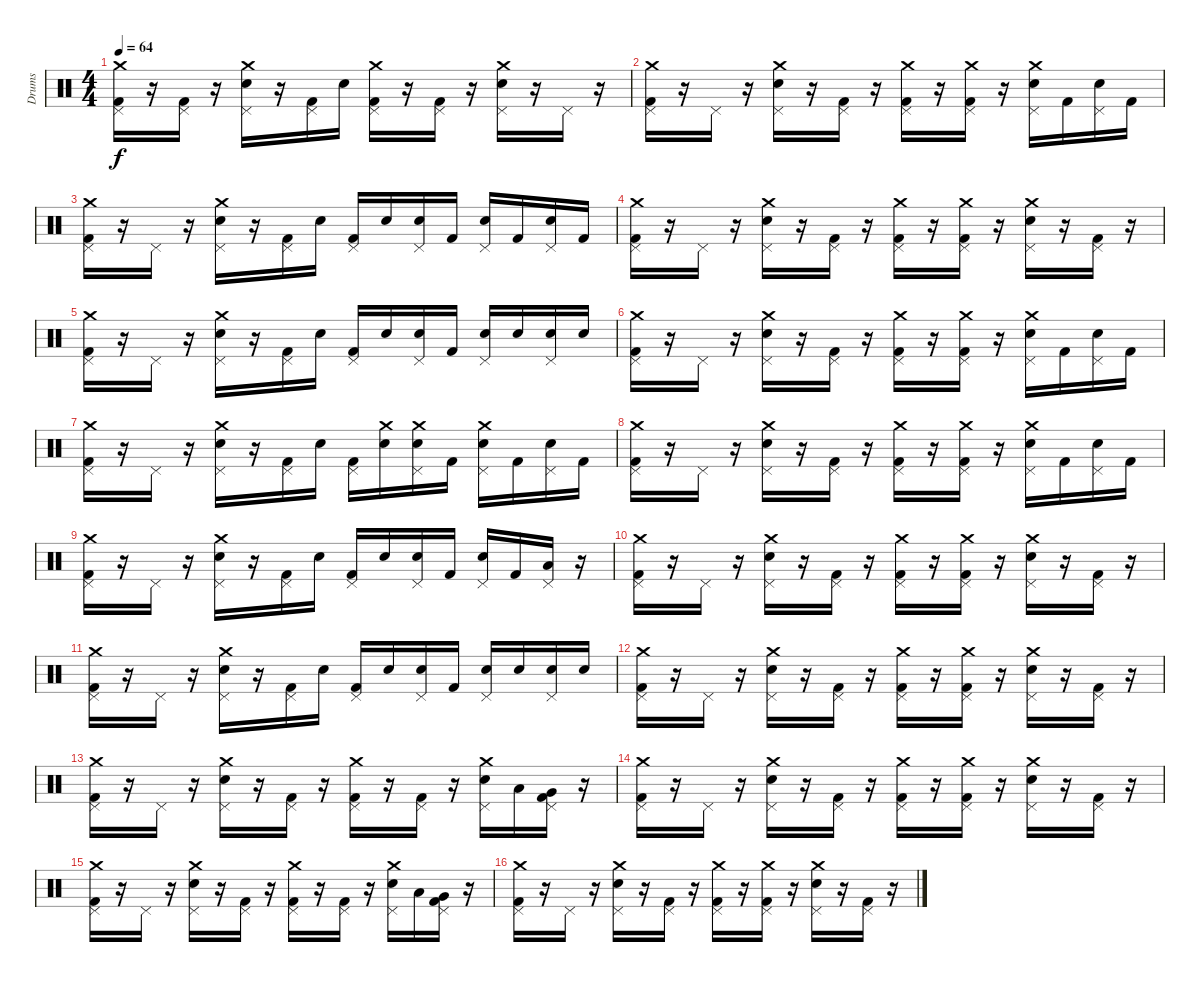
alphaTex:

\track ("Drums" "Drums") {instrument percussion}
\staff {score}
\articulation defaults
\ts (4 4)
\tempo 64
\clef neutral
\ks c
("Crash medium (hit)" "Pedal Hi-Hat (hit)" "Kick (hit) 2").16{dy f} r.16 ("Pedal Hi-Hat (hit)" "Kick (hit) 2").16 r.16 ("Crash medium (hit)" "Pedal Hi-Hat (hit)" "Snare (hit) 2").16 r.16 ("Pedal Hi-Hat (hit)" "Kick (hit) 2").16 "Snare (hit) 2".16 ("Crash medium (hit)" "Pedal Hi-Hat (hit)" "Kick (hit) 2").16 r.16 ("Pedal Hi-Hat (hit)" "Kick (hit) 2").16 r.16 ("Crash medium (hit)" "Pedal Hi-Hat (hit)" "Snare (hit) 2").16 r.16 "Pedal Hi-Hat (hit)".16 r.16 |
("Crash medium (hit)" "Pedal Hi-Hat (hit)" "Kick (hit) 2").16 r.16 "Pedal Hi-Hat (hit)".16 r.16 ("Crash medium (hit)" "Pedal Hi-Hat (hit)" "Snare (hit) 2").16 r.16 ("Pedal Hi-Hat (hit)" "Kick (hit) 2").16 r.16 ("Crash medium (hit)" "Pedal Hi-Hat (hit)" "Kick (hit) 2").16 r.16 ("Crash medium (hit)" "Pedal Hi-Hat (hit)" "Kick (hit) 2").16 r.16 ("Crash medium (hit)" "Pedal Hi-Hat (hit)" "Snare (hit) 2").16 "Kick (hit) 2".16 ("Pedal Hi-Hat (hit)" "Snare (hit) 2").16 "Kick (hit) 2".16 |
("Crash medium (hit)" "Pedal Hi-Hat (hit)" "Kick (hit) 2").16 r.16 "Pedal Hi-Hat (hit)".16 r.16 ("Crash medium (hit)" "Pedal Hi-Hat (hit)" "Snare (hit) 2").16 r.16 ("Pedal Hi-Hat (hit)" "Kick (hit) 2").16 "Snare (hit) 2".16 ("Pedal Hi-Hat (hit)" "Kick (hit) 2").16 "Snare (hit) 2".16 ("Pedal Hi-Hat (hit)" "Snare (hit) 2").16 "Kick (hit) 2".16 ("Pedal Hi-Hat (hit)" "Snare (hit) 2").16 "Kick (hit) 2".16 ("Pedal Hi-Hat (hit)" "Snare (hit) 2").16 "Kick (hit) 2".16 |
("Crash medium (hit)" "Pedal Hi-Hat (hit)" "Kick (hit) 2").16 r.16 "Pedal Hi-Hat (hit)".16 r.16 ("Crash medium (hit)" "Pedal Hi-Hat (hit)" "Snare (hit) 2").16 r.16 ("Pedal Hi-Hat (hit)" "Kick (hit) 2").16 r.16 ("Crash medium (hit)" "Pedal Hi-Hat (hit)" "Kick (hit) 2").16 r.16 ("Crash medium (hit)" "Pedal Hi-Hat (hit)" "Kick (hit) 2").16 r.16 ("Crash medium (hit)" "Pedal Hi-Hat (hit)" "Snare (hit) 2").16 r.16 ("Pedal Hi-Hat (hit)" "Kick (hit) 2").16 r.16 |
("Crash medium (hit)" "Pedal Hi-Hat (hit)" "Kick (hit) 2").16 r.16 "Pedal Hi-Hat (hit)".16 r.16 ("Crash medium (hit)" "Pedal Hi-Hat (hit)" "Snare (hit) 2").16 r.16 ("Pedal Hi-Hat (hit)" "Kick (hit) 2").16 "Snare (hit) 2".16 ("Pedal Hi-Hat (hit)" "Kick (hit) 2").16 "Snare (hit) 2".16 ("Pedal Hi-Hat (hit)" "Snare (hit) 2").16 "Kick (hit) 2".16 ("Pedal Hi-Hat (hit)" "Snare (hit) 2").16 "Snare (hit) 2".16 ("Pedal Hi-Hat (hit)" "Snare (hit) 2").16 "Snare (hit) 2".16 |
("Crash medium (hit)" "Pedal Hi-Hat (hit)" "Kick (hit) 2").16 r.16 "Pedal Hi-Hat (hit)".16 r.16 ("Crash medium (hit)" "Pedal Hi-Hat (hit)" "Snare (hit) 2").16 r.16 ("Pedal Hi-Hat (hit)" "Kick (hit) 2").16 r.16 ("Crash medium (hit)" "Pedal Hi-Hat (hit)" "Kick (hit) 2").16 r.16 ("Crash medium (hit)" "Pedal Hi-Hat (hit)" "Kick (hit) 2").16 r.16 ("Crash medium (hit)" "Pedal Hi-Hat (hit)" "Snare (hit) 2").16 "Kick (hit) 2".16 ("Pedal Hi-Hat (hit)" "Snare (hit) 2").16 "Kick (hit) 2".16 |
("Crash medium (hit)" "Pedal Hi-Hat (hit)" "Kick (hit) 2").16 r.16 "Pedal Hi-Hat (hit)".16 r.16 ("Crash medium (hit)" "Pedal Hi-Hat (hit)" "Snare (hit) 2").16 r.16 ("Pedal Hi-Hat (hit)" "Kick (hit) 2").16 "Snare (hit) 2".16 ("Pedal Hi-Hat (hit)" "Kick (hit) 2").16 ("Crash medium (hit)" "Snare (hit) 2").16 ("Crash medium (hit)" "Pedal Hi-Hat (hit)" "Snare (hit) 2").16 "Kick (hit) 2".16 ("Crash medium (hit)" "Pedal Hi-Hat (hit)" "Snare (hit) 2").16 "Kick (hit) 2".16 ("Pedal Hi-Hat (hit)" "Snare (hit) 2").16 "Kick (hit) 2".16 |
("Crash medium (hit)" "Pedal Hi-Hat (hit)" "Kick (hit) 2").16 r.16 "Pedal Hi-Hat (hit)".16 r.16 ("Crash medium (hit)" "Pedal Hi-Hat (hit)" "Snare (hit) 2").16 r.16 ("Pedal Hi-Hat (hit)" "Kick (hit) 2").16 r.16 ("Crash medium (hit)" "Pedal Hi-Hat (hit)" "Kick (hit) 2").16 r.16 ("Crash medium (hit)" "Pedal Hi-Hat (hit)" "Kick (hit) 2").16 r.16 ("Crash medium (hit)" "Pedal Hi-Hat (hit)" "Snare (hit) 2").16 "Kick (hit) 2".16 ("Pedal Hi-Hat (hit)" "Snare (hit) 2").16 "Kick (hit) 2".16 |
("Crash medium (hit)" "Pedal Hi-Hat (hit)" "Kick (hit) 2").16 r.16 "Pedal Hi-Hat (hit)".16 r.16 ("Crash medium (hit)" "Pedal Hi-Hat (hit)" "Snare (hit) 2").16 r.16 ("Pedal Hi-Hat (hit)" "Kick (hit) 2").16 "Snare (hit) 2".16 ("Pedal Hi-Hat (hit)" "Kick (hit) 2").16 "Snare (hit) 2".16 ("Pedal Hi-Hat (hit)" "Snare (hit) 2").16 "Kick (hit) 2".16 ("Pedal Hi-Hat (hit)" "Snare (hit) 2").16 "Kick (hit) 2".16 ("Pedal Hi-Hat (hit)" "Low Tom (hit)").16 r.16 |
("Crash medium (hit)" "Pedal Hi-Hat (hit)" "Kick (hit) 2").16 r.16 "Pedal Hi-Hat (hit)".16 r.16 ("Crash medium (hit)" "Pedal Hi-Hat (hit)" "Snare (hit) 2").16 r.16 ("Pedal Hi-Hat (hit)" "Kick (hit) 2").16 r.16 ("Crash medium (hit)" "Pedal Hi-Hat (hit)" "Kick (hit) 2").16 r.16 ("Crash medium (hit)" "Pedal Hi-Hat (hit)" "Kick (hit) 2").16 r.16 ("Crash medium (hit)" "Pedal Hi-Hat (hit)" "Snare (hit) 2").16 r.16 ("Pedal Hi-Hat (hit)" "Kick (hit) 2").16 r.16 |
("Crash medium (hit)" "Pedal Hi-Hat (hit)" "Kick (hit) 2").16 r.16 "Pedal Hi-Hat (hit)".16 r.16 ("Crash medium (hit)" "Pedal Hi-Hat (hit)" "Snare (hit) 2").16 r.16 ("Pedal Hi-Hat (hit)" "Kick (hit) 2").16 "Snare (hit) 2".16 ("Pedal Hi-Hat (hit)" "Kick (hit) 2").16 "Snare (hit) 2".16 ("Pedal Hi-Hat (hit)" "Snare (hit) 2").16 "Kick (hit) 2".16 ("Pedal Hi-Hat (hit)" "Snare (hit) 2").16 "Snare (hit) 2".16 ("Pedal Hi-Hat (hit)" "Snare (hit) 2").16 "Snare (hit) 2".16 |
("Crash medium (hit)" "Pedal Hi-Hat (hit)" "Kick (hit) 2").16 r.16 "Pedal Hi-Hat (hit)".16 r.16 ("Crash medium (hit)" "Pedal Hi-Hat (hit)" "Snare (hit) 2").16 r.16 ("Pedal Hi-Hat (hit)" "Kick (hit) 2").16 r.16 ("Crash medium (hit)" "Pedal Hi-Hat (hit)" "Kick (hit) 2").16 r.16 ("Crash medium (hit)" "Pedal Hi-Hat (hit)" "Kick (hit) 2").16 r.16 ("Crash medium (hit)" "Pedal Hi-Hat (hit)" "Snare (hit) 2").16 r.16 ("Pedal Hi-Hat (hit)" "Kick (hit) 2").16 r.16 |
("Crash medium (hit)" "Pedal Hi-Hat (hit)" "Kick (hit) 2").16 r.16 "Pedal Hi-Hat (hit)".16 r.16 ("Crash medium (hit)" "Pedal Hi-Hat (hit)" "Snare (hit) 2").16 r.16 ("Pedal Hi-Hat (hit)" "Kick (hit) 2").16 r.16 ("Crash medium (hit)" "Pedal Hi-Hat (hit)" "Kick (hit) 2").16 r.16 ("Pedal Hi-Hat (hit)" "Kick (hit) 2").16 r.16 ("Crash medium (hit)" "Pedal Hi-Hat (hit)" "Snare (hit) 2").16 "Low Tom (hit)".16 ("Pedal Hi-Hat (hit)" "Very Low Tom (hit)" "Kick (hit) 2").16 r.16 |
("Crash medium (hit)" "Pedal Hi-Hat (hit)" "Kick (hit) 2").16 r.16 "Pedal Hi-Hat (hit)".16 r.16 ("Crash medium (hit)" "Pedal Hi-Hat (hit)" "Snare (hit) 2").16 r.16 ("Pedal Hi-Hat (hit)" "Kick (hit) 2").16 r.16 ("Crash medium (hit)" "Pedal Hi-Hat (hit)" "Kick (hit) 2").16 r.16 ("Crash medium (hit)" "Pedal Hi-Hat (hit)" "Kick (hit) 2").16 r.16 ("Crash medium (hit)" "Pedal Hi-Hat (hit)" "Snare (hit) 2").16 r.16 ("Pedal Hi-Hat (hit)" "Kick (hit) 2").16 r.16 |
("Crash medium (hit)" "Pedal Hi-Hat (hit)" "Kick (hit) 2").16 r.16 "Pedal Hi-Hat (hit)".16 r.16 ("Crash medium (hit)" "Pedal Hi-Hat (hit)" "Snare (hit) 2").16 r.16 ("Pedal Hi-Hat (hit)" "Kick (hit) 2").16 r.16 ("Crash medium (hit)" "Pedal Hi-Hat (hit)" "Kick (hit) 2").16 r.16 ("Pedal Hi-Hat (hit)" "Kick (hit) 2").16 r.16 ("Crash medium (hit)" "Pedal Hi-Hat (hit)" "Snare (hit) 2").16 "Low Tom (hit)".16 ("Pedal Hi-Hat (hit)" "Very Low Tom (hit)" "Kick (hit) 2").16 r.16 |
("Crash medium (hit)" "Pedal Hi-Hat (hit)" "Kick (hit) 2").16 r.16 "Pedal Hi-Hat (hit)".16 r.16 ("Crash medium (hit)" "Pedal Hi-Hat (hit)" "Snare (hit) 2").16 r.16 ("Pedal Hi-Hat (hit)" "Kick (hit) 2").16 r.16 ("Crash medium (hit)" "Pedal Hi-Hat (hit)" "Kick (hit) 2").16 r.16 ("Crash medium (hit)" "Pedal Hi-Hat (hit)" "Kick (hit) 2").16 r.16 ("Crash medium (hit)" "Pedal Hi-Hat (hit)" "Snare (hit) 2").16 r.16 ("Pedal Hi-Hat (hit)" "Kick (hit) 2").16 r.16
